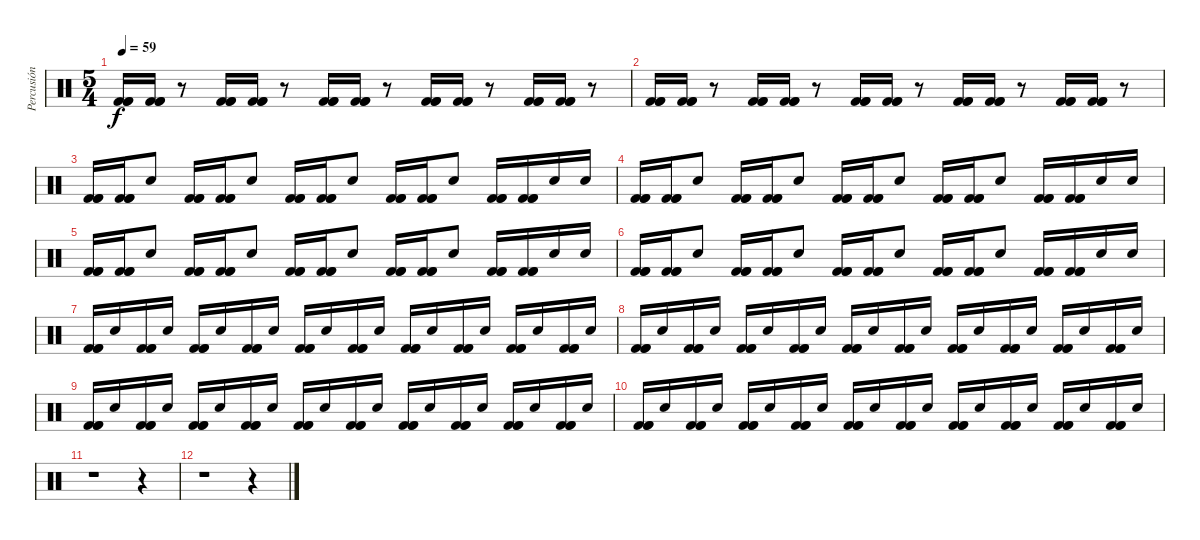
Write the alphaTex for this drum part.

\track ("Percusión" "Percusión") {instrument percussion}
\staff {score}
\articulation defaults
\ts (5 4)
\tempo 59
\clef neutral
\ks c
("Kick (hit) 2" "Kick (hit) 2" "Kick (hit) 2").16{dy f} ("Kick (hit) 2" "Kick (hit) 2" "Kick (hit) 2").16 r.8 ("Kick (hit) 2" "Kick (hit) 2" "Kick (hit) 2").16 ("Kick (hit) 2" "Kick (hit) 2" "Kick (hit) 2").16 r.8 ("Kick (hit) 2" "Kick (hit) 2" "Kick (hit) 2").16 ("Kick (hit) 2" "Kick (hit) 2" "Kick (hit) 2").16 r.8 ("Kick (hit) 2" "Kick (hit) 2" "Kick (hit) 2").16 ("Kick (hit) 2" "Kick (hit) 2" "Kick (hit) 2").16 r.8 ("Kick (hit) 2" "Kick (hit) 2" "Kick (hit) 2").16 ("Kick (hit) 2" "Kick (hit) 2" "Kick (hit) 2").16 r.8 |
("Kick (hit) 2" "Kick (hit) 2" "Kick (hit) 2").16 ("Kick (hit) 2" "Kick (hit) 2" "Kick (hit) 2").16 r.8 ("Kick (hit) 2" "Kick (hit) 2" "Kick (hit) 2").16 ("Kick (hit) 2" "Kick (hit) 2" "Kick (hit) 2").16 r.8 ("Kick (hit) 2" "Kick (hit) 2" "Kick (hit) 2").16 ("Kick (hit) 2" "Kick (hit) 2" "Kick (hit) 2").16 r.8 ("Kick (hit) 2" "Kick (hit) 2" "Kick (hit) 2").16 ("Kick (hit) 2" "Kick (hit) 2" "Kick (hit) 2").16 r.8 ("Kick (hit) 2" "Kick (hit) 2" "Kick (hit) 2").16 ("Kick (hit) 2" "Kick (hit) 2" "Kick (hit) 2").16 r.8 |
("Kick (hit) 2" "Kick (hit) 2" "Kick (hit) 2").16 ("Kick (hit) 2" "Kick (hit) 2" "Kick (hit) 2").16 "Snare (hit) 2".8 ("Kick (hit) 2" "Kick (hit) 2" "Kick (hit) 2").16 ("Kick (hit) 2" "Kick (hit) 2" "Kick (hit) 2").16 "Snare (hit) 2".8 ("Kick (hit) 2" "Kick (hit) 2" "Kick (hit) 2").16 ("Kick (hit) 2" "Kick (hit) 2" "Kick (hit) 2").16 "Snare (hit) 2".8 ("Kick (hit) 2" "Kick (hit) 2" "Kick (hit) 2").16 ("Kick (hit) 2" "Kick (hit) 2" "Kick (hit) 2").16 "Snare (hit) 2".8 ("Kick (hit) 2" "Kick (hit) 2" "Kick (hit) 2").16 ("Kick (hit) 2" "Kick (hit) 2" "Kick (hit) 2").16 "Snare (hit) 2".16 "Snare (hit) 2".16 |
("Kick (hit) 2" "Kick (hit) 2" "Kick (hit) 2").16 ("Kick (hit) 2" "Kick (hit) 2" "Kick (hit) 2").16 "Snare (hit) 2".8 ("Kick (hit) 2" "Kick (hit) 2" "Kick (hit) 2").16 ("Kick (hit) 2" "Kick (hit) 2" "Kick (hit) 2").16 "Snare (hit) 2".8 ("Kick (hit) 2" "Kick (hit) 2" "Kick (hit) 2").16 ("Kick (hit) 2" "Kick (hit) 2" "Kick (hit) 2").16 "Snare (hit) 2".8 ("Kick (hit) 2" "Kick (hit) 2" "Kick (hit) 2").16 ("Kick (hit) 2" "Kick (hit) 2" "Kick (hit) 2").16 "Snare (hit) 2".8 ("Kick (hit) 2" "Kick (hit) 2" "Kick (hit) 2").16 ("Kick (hit) 2" "Kick (hit) 2" "Kick (hit) 2").16 "Snare (hit) 2".16 "Snare (hit) 2".16 |
("Kick (hit) 2" "Kick (hit) 2" "Kick (hit) 2").16 ("Kick (hit) 2" "Kick (hit) 2" "Kick (hit) 2").16 "Snare (hit) 2".8 ("Kick (hit) 2" "Kick (hit) 2" "Kick (hit) 2").16 ("Kick (hit) 2" "Kick (hit) 2" "Kick (hit) 2").16 "Snare (hit) 2".8 ("Kick (hit) 2" "Kick (hit) 2" "Kick (hit) 2").16 ("Kick (hit) 2" "Kick (hit) 2" "Kick (hit) 2").16 "Snare (hit) 2".8 ("Kick (hit) 2" "Kick (hit) 2" "Kick (hit) 2").16 ("Kick (hit) 2" "Kick (hit) 2" "Kick (hit) 2").16 "Snare (hit) 2".8 ("Kick (hit) 2" "Kick (hit) 2" "Kick (hit) 2").16 ("Kick (hit) 2" "Kick (hit) 2" "Kick (hit) 2").16 "Snare (hit) 2".16 "Snare (hit) 2".16 |
("Kick (hit) 2" "Kick (hit) 2" "Kick (hit) 2").16 ("Kick (hit) 2" "Kick (hit) 2" "Kick (hit) 2").16 "Snare (hit) 2".8 ("Kick (hit) 2" "Kick (hit) 2" "Kick (hit) 2").16 ("Kick (hit) 2" "Kick (hit) 2" "Kick (hit) 2").16 "Snare (hit) 2".8 ("Kick (hit) 2" "Kick (hit) 2" "Kick (hit) 2").16 ("Kick (hit) 2" "Kick (hit) 2" "Kick (hit) 2").16 "Snare (hit) 2".8 ("Kick (hit) 2" "Kick (hit) 2" "Kick (hit) 2").16 ("Kick (hit) 2" "Kick (hit) 2" "Kick (hit) 2").16 "Snare (hit) 2".8 ("Kick (hit) 2" "Kick (hit) 2" "Kick (hit) 2").16 ("Kick (hit) 2" "Kick (hit) 2" "Kick (hit) 2").16 "Snare (hit) 2".16 "Snare (hit) 2".16 |
("Kick (hit) 2" "Kick (hit) 2" "Kick (hit) 2").16 "Snare (hit) 2".16 ("Kick (hit) 2" "Kick (hit) 2" "Kick (hit) 2").16 "Snare (hit) 2".16 ("Kick (hit) 2" "Kick (hit) 2" "Kick (hit) 2").16 "Snare (hit) 2".16 ("Kick (hit) 2" "Kick (hit) 2" "Kick (hit) 2").16 "Snare (hit) 2".16 ("Kick (hit) 2" "Kick (hit) 2" "Kick (hit) 2").16 "Snare (hit) 2".16 ("Kick (hit) 2" "Kick (hit) 2" "Kick (hit) 2").16 "Snare (hit) 2".16 ("Kick (hit) 2" "Kick (hit) 2" "Kick (hit) 2").16 "Snare (hit) 2".16 ("Kick (hit) 2" "Kick (hit) 2" "Kick (hit) 2").16 "Snare (hit) 2".16 ("Kick (hit) 2" "Kick (hit) 2" "Kick (hit) 2").16 "Snare (hit) 2".16 ("Kick (hit) 2" "Kick (hit) 2" "Kick (hit) 2").16 "Snare (hit) 2".16 |
("Kick (hit) 2" "Kick (hit) 2" "Kick (hit) 2").16 "Snare (hit) 2".16 ("Kick (hit) 2" "Kick (hit) 2" "Kick (hit) 2").16 "Snare (hit) 2".16 ("Kick (hit) 2" "Kick (hit) 2" "Kick (hit) 2").16 "Snare (hit) 2".16 ("Kick (hit) 2" "Kick (hit) 2" "Kick (hit) 2").16 "Snare (hit) 2".16 ("Kick (hit) 2" "Kick (hit) 2" "Kick (hit) 2").16 "Snare (hit) 2".16 ("Kick (hit) 2" "Kick (hit) 2" "Kick (hit) 2").16 "Snare (hit) 2".16 ("Kick (hit) 2" "Kick (hit) 2" "Kick (hit) 2").16 "Snare (hit) 2".16 ("Kick (hit) 2" "Kick (hit) 2" "Kick (hit) 2").16 "Snare (hit) 2".16 ("Kick (hit) 2" "Kick (hit) 2" "Kick (hit) 2").16 "Snare (hit) 2".16 ("Kick (hit) 2" "Kick (hit) 2" "Kick (hit) 2").16 "Snare (hit) 2".16 |
("Kick (hit) 2" "Kick (hit) 2" "Kick (hit) 2").16 "Snare (hit) 2".16 ("Kick (hit) 2" "Kick (hit) 2" "Kick (hit) 2").16 "Snare (hit) 2".16 ("Kick (hit) 2" "Kick (hit) 2" "Kick (hit) 2").16 "Snare (hit) 2".16 ("Kick (hit) 2" "Kick (hit) 2" "Kick (hit) 2").16 "Snare (hit) 2".16 ("Kick (hit) 2" "Kick (hit) 2" "Kick (hit) 2").16 "Snare (hit) 2".16 ("Kick (hit) 2" "Kick (hit) 2" "Kick (hit) 2").16 "Snare (hit) 2".16 ("Kick (hit) 2" "Kick (hit) 2" "Kick (hit) 2").16 "Snare (hit) 2".16 ("Kick (hit) 2" "Kick (hit) 2" "Kick (hit) 2").16 "Snare (hit) 2".16 ("Kick (hit) 2" "Kick (hit) 2" "Kick (hit) 2").16 "Snare (hit) 2".16 ("Kick (hit) 2" "Kick (hit) 2" "Kick (hit) 2").16 "Snare (hit) 2".16 |
("Kick (hit) 2" "Kick (hit) 2" "Kick (hit) 2").16 "Snare (hit) 2".16 ("Kick (hit) 2" "Kick (hit) 2" "Kick (hit) 2").16 "Snare (hit) 2".16 ("Kick (hit) 2" "Kick (hit) 2" "Kick (hit) 2").16 "Snare (hit) 2".16 ("Kick (hit) 2" "Kick (hit) 2" "Kick (hit) 2").16 "Snare (hit) 2".16 ("Kick (hit) 2" "Kick (hit) 2" "Kick (hit) 2").16 "Snare (hit) 2".16 ("Kick (hit) 2" "Kick (hit) 2" "Kick (hit) 2").16 "Snare (hit) 2".16 ("Kick (hit) 2" "Kick (hit) 2" "Kick (hit) 2").16 "Snare (hit) 2".16 ("Kick (hit) 2" "Kick (hit) 2" "Kick (hit) 2").16 "Snare (hit) 2".16 ("Kick (hit) 2" "Kick (hit) 2" "Kick (hit) 2").16 "Snare (hit) 2".16 ("Kick (hit) 2" "Kick (hit) 2" "Kick (hit) 2").16 "Snare (hit) 2".16 |
r.1 r.4 |
r.1 r.4
